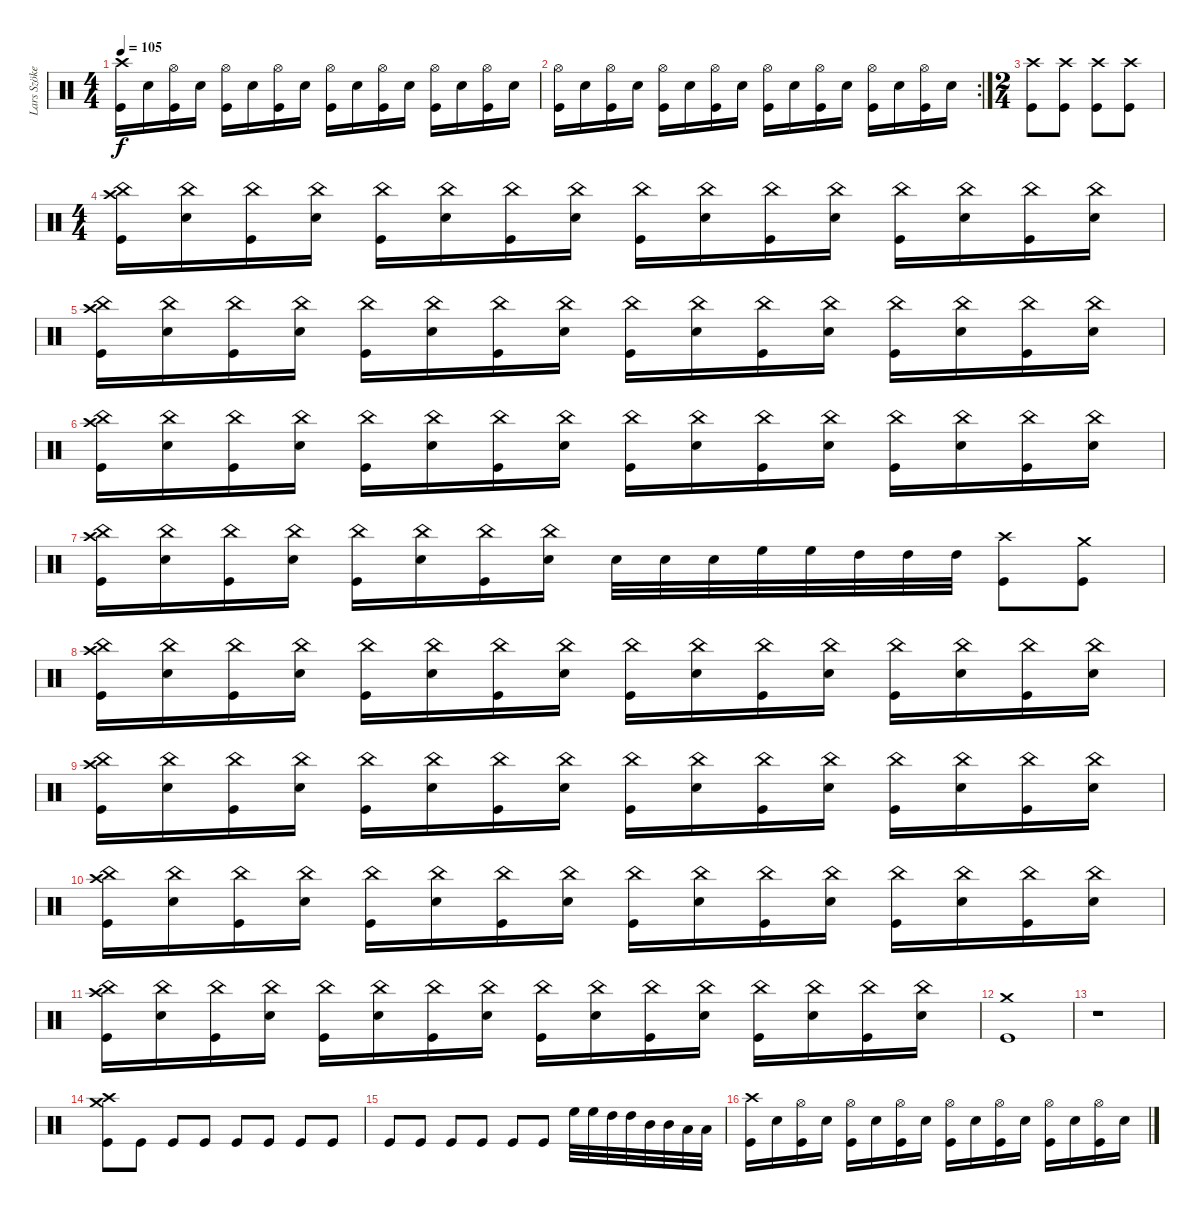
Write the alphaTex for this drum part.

\track ("Lars Szöke" "Lars Szöke") {instrument percussion}
\staff {score}
\articulation defaults
\ts (4 4)
\tempo 105
\clef neutral
\ks c
("Crash high (hit)" "Kick (hit)").16{dy f} "Snare (hit) 2".16 ("Hi-Hat (open)" "Kick (hit)").16 "Snare (hit) 2".16 ("Hi-Hat (open)" "Kick (hit)").16 "Snare (hit) 2".16 ("Hi-Hat (open)" "Kick (hit)").16 "Snare (hit) 2".16 ("Hi-Hat (open)" "Kick (hit)").16 "Snare (hit) 2".16 ("Hi-Hat (open)" "Kick (hit)").16 "Snare (hit) 2".16 ("Hi-Hat (open)" "Kick (hit)").16 "Snare (hit) 2".16 ("Hi-Hat (open)" "Kick (hit)").16 "Snare (hit) 2".16 |
\rc 2
("Hi-Hat (open)" "Kick (hit)").16 "Snare (hit) 2".16 ("Hi-Hat (open)" "Kick (hit)").16 "Snare (hit) 2".16 ("Hi-Hat (open)" "Kick (hit)").16 "Snare (hit) 2".16 ("Hi-Hat (open)" "Kick (hit)").16 "Snare (hit) 2".16 ("Hi-Hat (open)" "Kick (hit)").16 "Snare (hit) 2".16 ("Hi-Hat (open)" "Kick (hit)").16 "Snare (hit) 2".16 ("Hi-Hat (open)" "Kick (hit)").16 "Snare (hit) 2".16 ("Hi-Hat (open)" "Kick (hit)").16 "Snare (hit) 2".16 |
\ts (2 4)
("Crash high (hit)" "Kick (hit)").8 ("Crash high (hit)" "Kick (hit)").8 ("Crash high (hit)" "Kick (hit)").8 ("Crash high (hit)" "Kick (hit)").8 |
\ts (4 4)
("China (hit)" "Crash high (hit)" "Kick (hit)").16 ("China (hit)" "Snare (hit) 2").16 ("China (hit)" "Kick (hit)").16 ("China (hit)" "Snare (hit) 2").16 ("China (hit)" "Kick (hit)").16 ("China (hit)" "Snare (hit) 2").16 ("China (hit)" "Kick (hit)").16 ("China (hit)" "Snare (hit) 2").16 ("China (hit)" "Kick (hit)").16 ("China (hit)" "Snare (hit) 2").16 ("China (hit)" "Kick (hit)").16 ("China (hit)" "Snare (hit) 2").16 ("China (hit)" "Kick (hit)").16 ("China (hit)" "Snare (hit) 2").16 ("China (hit)" "Kick (hit)").16 ("China (hit)" "Snare (hit) 2").16 |
("China (hit)" "Crash high (hit)" "Kick (hit)").16 ("China (hit)" "Snare (hit) 2").16 ("China (hit)" "Kick (hit)").16 ("China (hit)" "Snare (hit) 2").16 ("China (hit)" "Kick (hit)").16 ("China (hit)" "Snare (hit) 2").16 ("China (hit)" "Kick (hit)").16 ("China (hit)" "Snare (hit) 2").16 ("China (hit)" "Kick (hit)").16 ("China (hit)" "Snare (hit) 2").16 ("China (hit)" "Kick (hit)").16 ("China (hit)" "Snare (hit) 2").16 ("China (hit)" "Kick (hit)").16 ("China (hit)" "Snare (hit) 2").16 ("China (hit)" "Kick (hit)").16 ("China (hit)" "Snare (hit) 2").16 |
("China (hit)" "Crash high (hit)" "Kick (hit)").16 ("China (hit)" "Snare (hit) 2").16 ("China (hit)" "Kick (hit)").16 ("China (hit)" "Snare (hit) 2").16 ("China (hit)" "Kick (hit)").16 ("China (hit)" "Snare (hit) 2").16 ("China (hit)" "Kick (hit)").16 ("China (hit)" "Snare (hit) 2").16 ("China (hit)" "Kick (hit)").16 ("China (hit)" "Snare (hit) 2").16 ("China (hit)" "Kick (hit)").16 ("China (hit)" "Snare (hit) 2").16 ("China (hit)" "Kick (hit)").16 ("China (hit)" "Snare (hit) 2").16 ("China (hit)" "Kick (hit)").16 ("China (hit)" "Snare (hit) 2").16 |
("China (hit)" "Crash high (hit)" "Kick (hit)").16 ("China (hit)" "Snare (hit) 2").16 ("China (hit)" "Kick (hit)").16 ("China (hit)" "Snare (hit) 2").16 ("China (hit)" "Kick (hit)").16 ("China (hit)" "Snare (hit) 2").16 ("China (hit)" "Kick (hit)").16 ("China (hit)" "Snare (hit) 2").16 "Snare (hit) 2".32 "Snare (hit) 2".32 "Snare (hit) 2".32 "High Floor Tom (hit)".32 "High Floor Tom (hit)".32 "High Tom (hit)".32 "High Tom (hit)".32 "High Tom (hit)".32 ("Crash high (hit)" "Kick (hit)").8 ("Crash medium (hit)" "Kick (hit)").8 |
("China (hit)" "Crash high (hit)" "Kick (hit)").16 ("China (hit)" "Snare (hit) 2").16 ("China (hit)" "Kick (hit)").16 ("China (hit)" "Snare (hit) 2").16 ("China (hit)" "Kick (hit)").16 ("China (hit)" "Snare (hit) 2").16 ("China (hit)" "Kick (hit)").16 ("China (hit)" "Snare (hit) 2").16 ("China (hit)" "Kick (hit)").16 ("China (hit)" "Snare (hit) 2").16 ("China (hit)" "Kick (hit)").16 ("China (hit)" "Snare (hit) 2").16 ("China (hit)" "Kick (hit)").16 ("China (hit)" "Snare (hit) 2").16 ("China (hit)" "Kick (hit)").16 ("China (hit)" "Snare (hit) 2").16 |
("China (hit)" "Crash high (hit)" "Kick (hit)").16 ("China (hit)" "Snare (hit) 2").16 ("China (hit)" "Kick (hit)").16 ("China (hit)" "Snare (hit) 2").16 ("China (hit)" "Kick (hit)").16 ("China (hit)" "Snare (hit) 2").16 ("China (hit)" "Kick (hit)").16 ("China (hit)" "Snare (hit) 2").16 ("China (hit)" "Kick (hit)").16 ("China (hit)" "Snare (hit) 2").16 ("China (hit)" "Kick (hit)").16 ("China (hit)" "Snare (hit) 2").16 ("China (hit)" "Kick (hit)").16 ("China (hit)" "Snare (hit) 2").16 ("China (hit)" "Kick (hit)").16 ("China (hit)" "Snare (hit) 2").16 |
("China (hit)" "Crash high (hit)" "Kick (hit)").16 ("China (hit)" "Snare (hit) 2").16 ("China (hit)" "Kick (hit)").16 ("China (hit)" "Snare (hit) 2").16 ("China (hit)" "Kick (hit)").16 ("China (hit)" "Snare (hit) 2").16 ("China (hit)" "Kick (hit)").16 ("China (hit)" "Snare (hit) 2").16 ("China (hit)" "Kick (hit)").16 ("China (hit)" "Snare (hit) 2").16 ("China (hit)" "Kick (hit)").16 ("China (hit)" "Snare (hit) 2").16 ("China (hit)" "Kick (hit)").16 ("China (hit)" "Snare (hit) 2").16 ("China (hit)" "Kick (hit)").16 ("China (hit)" "Snare (hit) 2").16 |
("China (hit)" "Crash high (hit)" "Kick (hit)").16 ("China (hit)" "Snare (hit) 2").16 ("China (hit)" "Kick (hit)").16 ("China (hit)" "Snare (hit) 2").16 ("China (hit)" "Kick (hit)").16 ("China (hit)" "Snare (hit) 2").16 ("China (hit)" "Kick (hit)").16 ("China (hit)" "Snare (hit) 2").16 ("China (hit)" "Kick (hit)").16 ("China (hit)" "Snare (hit) 2").16 ("China (hit)" "Kick (hit)").16 ("China (hit)" "Snare (hit) 2").16 ("China (hit)" "Kick (hit)").16 ("China (hit)" "Snare (hit) 2").16 ("China (hit)" "Kick (hit)").16 ("China (hit)" "Snare (hit) 2").16 |
("Crash medium (hit)" "Kick (hit)").1 |
r.1 |
("Crash high (hit)" "Crash medium (hit)" "Kick (hit)").8 "Kick (hit)".8 "Kick (hit)".8 "Kick (hit)".8 "Kick (hit)".8 "Kick (hit)".8 "Kick (hit)".8 "Kick (hit)".8 |
"Kick (hit)".8 "Kick (hit)".8 "Kick (hit)".8 "Kick (hit)".8 "Kick (hit)".8 "Kick (hit)".8 "High Floor Tom (hit)".32 "High Floor Tom (hit)".32 "High Tom (hit)".32 "High Tom (hit)".32 "Mid Tom (hit)".32 "Mid Tom (hit)".32 "Low Tom (hit)".32 "Low Tom (hit)".32 |
("Crash high (hit)" "Kick (hit)").16 "Snare (hit) 2".16 ("Hi-Hat (open)" "Kick (hit)").16 "Snare (hit) 2".16 ("Hi-Hat (open)" "Kick (hit)").16 "Snare (hit) 2".16 ("Hi-Hat (open)" "Kick (hit)").16 "Snare (hit) 2".16 ("Hi-Hat (open)" "Kick (hit)").16 "Snare (hit) 2".16 ("Hi-Hat (open)" "Kick (hit)").16 "Snare (hit) 2".16 ("Hi-Hat (open)" "Kick (hit)").16 "Snare (hit) 2".16 ("Hi-Hat (open)" "Kick (hit)").16 "Snare (hit) 2".16
